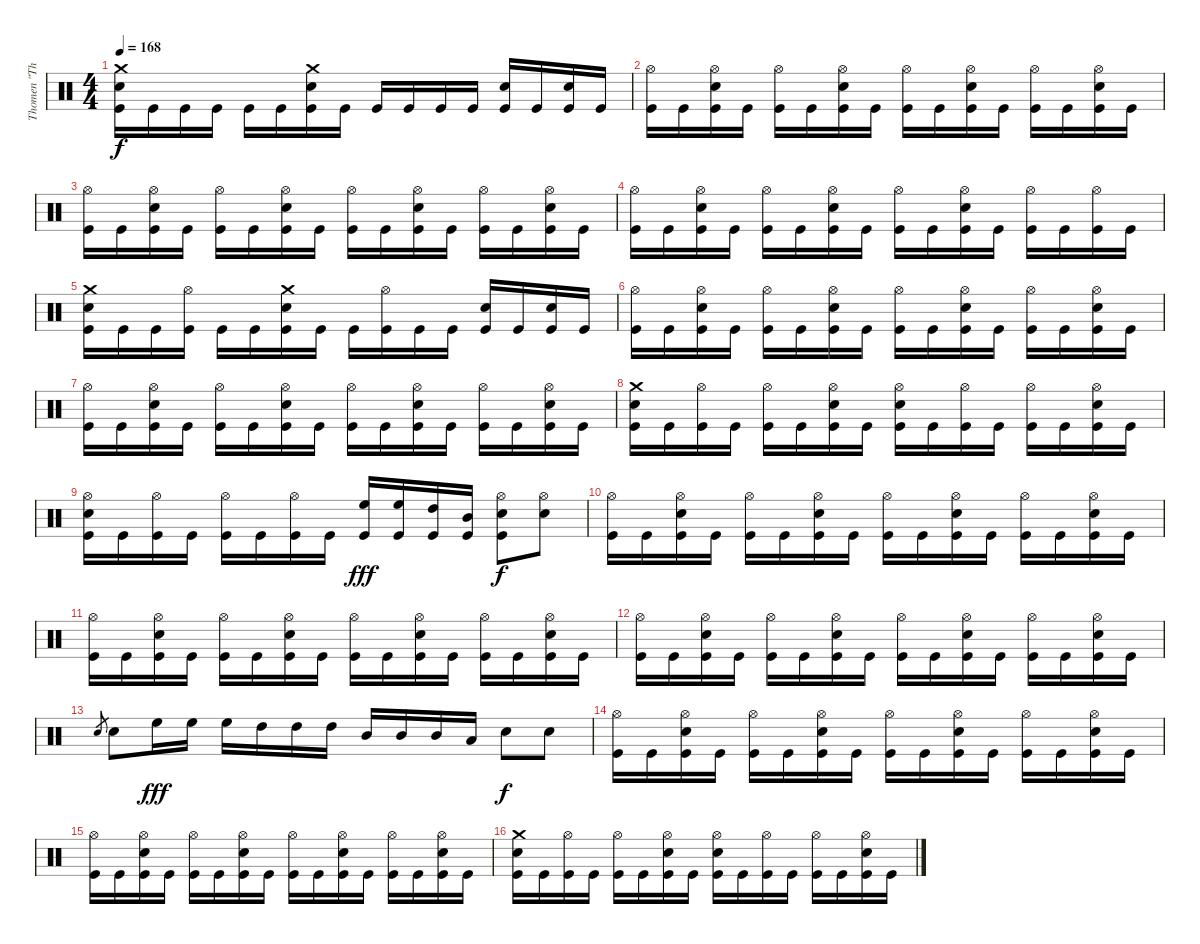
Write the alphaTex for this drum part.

\track ("Thomen \"The Omen\" Stauch" "Thomen \"Th") {instrument percussion}
\staff {score}
\articulation defaults
\ts (4 4)
\tempo 168
\clef neutral
\ks c
("Crash medium (hit)" "Snare (hit) 2" "Kick (hit)").16{dy f} "Kick (hit)".16 "Kick (hit)".16 "Kick (hit)".16 "Kick (hit)".16 "Kick (hit)".16 ("Crash medium (hit)" "Snare (hit) 2" "Kick (hit)").16 "Kick (hit)".16 "Kick (hit)".16 "Kick (hit)".16 "Kick (hit)".16 "Kick (hit)".16 ("Snare (hit) 2" "Kick (hit)").16 "Kick (hit)".16 ("Snare (hit) 2" "Kick (hit)").16 "Kick (hit)".16 |
("Hi-Hat (open)" "Kick (hit)").16 "Kick (hit)".16 ("Hi-Hat (open)" "Snare (hit) 2" "Kick (hit)").16 "Kick (hit)".16 ("Hi-Hat (open)" "Kick (hit)").16 "Kick (hit)".16 ("Hi-Hat (open)" "Snare (hit) 2" "Kick (hit)").16 "Kick (hit)".16 ("Hi-Hat (open)" "Kick (hit)").16 "Kick (hit)".16 ("Hi-Hat (open)" "Snare (hit) 2" "Kick (hit)").16 "Kick (hit)".16 ("Hi-Hat (open)" "Kick (hit)").16 "Kick (hit)".16 ("Hi-Hat (open)" "Snare (hit) 2" "Kick (hit)").16 "Kick (hit)".16 |
("Hi-Hat (open)" "Kick (hit)").16 "Kick (hit)".16 ("Hi-Hat (open)" "Snare (hit) 2" "Kick (hit)").16 "Kick (hit)".16 ("Hi-Hat (open)" "Kick (hit)").16 "Kick (hit)".16 ("Hi-Hat (open)" "Snare (hit) 2" "Kick (hit)").16 "Kick (hit)".16 ("Hi-Hat (open)" "Kick (hit)").16 "Kick (hit)".16 ("Hi-Hat (open)" "Snare (hit) 2" "Kick (hit)").16 "Kick (hit)".16 ("Hi-Hat (open)" "Kick (hit)").16 "Kick (hit)".16 ("Hi-Hat (open)" "Snare (hit) 2" "Kick (hit)").16 "Kick (hit)".16 |
("Hi-Hat (open)" "Kick (hit)").16 "Kick (hit)".16 ("Hi-Hat (open)" "Snare (hit) 2" "Kick (hit)").16 "Kick (hit)".16 ("Hi-Hat (open)" "Kick (hit)").16 "Kick (hit)".16 ("Hi-Hat (open)" "Snare (hit) 2" "Kick (hit)").16 "Kick (hit)".16 ("Hi-Hat (open)" "Kick (hit)").16 "Kick (hit)".16 ("Hi-Hat (open)" "Snare (hit) 2" "Kick (hit)").16 "Kick (hit)".16 ("Hi-Hat (open)" "Kick (hit)").16 "Kick (hit)".16 ("Hi-Hat (open)" "Kick (hit)").16 "Kick (hit)".16 |
("Crash medium (hit)" "Snare (hit) 2" "Kick (hit)").16 "Kick (hit)".16 "Kick (hit)".16 ("Hi-Hat (open)" "Kick (hit)").16 "Kick (hit)".16 "Kick (hit)".16 ("Crash medium (hit)" "Snare (hit) 2" "Kick (hit)").16 "Kick (hit)".16 "Kick (hit)".16 ("Hi-Hat (open)" "Kick (hit)").16 "Kick (hit)".16 "Kick (hit)".16 ("Snare (hit) 2" "Kick (hit)").16 "Kick (hit)".16 ("Snare (hit) 2" "Kick (hit)").16 "Kick (hit)".16 |
("Hi-Hat (open)" "Kick (hit)").16 "Kick (hit)".16 ("Hi-Hat (open)" "Snare (hit) 2" "Kick (hit)").16 "Kick (hit)".16 ("Hi-Hat (open)" "Kick (hit)").16 "Kick (hit)".16 ("Hi-Hat (open)" "Snare (hit) 2" "Kick (hit)").16 "Kick (hit)".16 ("Hi-Hat (open)" "Kick (hit)").16 "Kick (hit)".16 ("Hi-Hat (open)" "Snare (hit) 2" "Kick (hit)").16 "Kick (hit)".16 ("Hi-Hat (open)" "Kick (hit)").16 "Kick (hit)".16 ("Hi-Hat (open)" "Snare (hit) 2" "Kick (hit)").16 "Kick (hit)".16 |
("Hi-Hat (open)" "Kick (hit)").16 "Kick (hit)".16 ("Hi-Hat (open)" "Snare (hit) 2" "Kick (hit)").16 "Kick (hit)".16 ("Hi-Hat (open)" "Kick (hit)").16 "Kick (hit)".16 ("Hi-Hat (open)" "Snare (hit) 2" "Kick (hit)").16 "Kick (hit)".16 ("Hi-Hat (open)" "Kick (hit)").16 "Kick (hit)".16 ("Hi-Hat (open)" "Snare (hit) 2" "Kick (hit)").16 "Kick (hit)".16 ("Hi-Hat (open)" "Kick (hit)").16 "Kick (hit)".16 ("Hi-Hat (open)" "Snare (hit) 2" "Kick (hit)").16 "Kick (hit)".16 |
("Crash medium (hit)" "Snare (hit) 2" "Kick (hit)").16 "Kick (hit)".16 ("Hi-Hat (open)" "Kick (hit)").16 "Kick (hit)".16 ("Hi-Hat (open)" "Kick (hit)").16 "Kick (hit)".16 ("Hi-Hat (open)" "Snare (hit) 2" "Kick (hit)").16 "Kick (hit)".16 ("Hi-Hat (open)" "Snare (hit) 2" "Kick (hit)").16 "Kick (hit)".16 ("Hi-Hat (open)" "Kick (hit)").16 "Kick (hit)".16 ("Hi-Hat (open)" "Kick (hit)").16 "Kick (hit)".16 ("Hi-Hat (open)" "Snare (hit) 2" "Kick (hit)").16 "Kick (hit)".16 |
("Hi-Hat (open)" "Snare (hit) 2" "Kick (hit)").16 "Kick (hit)".16 ("Hi-Hat (open)" "Kick (hit)").16 "Kick (hit)".16 ("Hi-Hat (open)" "Kick (hit)").16 "Kick (hit)".16 ("Hi-Hat (open)" "Kick (hit)").16 "Kick (hit)".16 ("High Floor Tom (hit)" "Kick (hit)").16{dy fff} ("High Floor Tom (hit)" "Kick (hit)").16 ("High Tom (hit)" "Kick (hit)").16 ("Mid Tom (hit)" "Kick (hit)").16 ("Hi-Hat (open)" "Snare (hit) 2" "Kick (hit)").8{dy f} ("Hi-Hat (open)" "Snare (hit) 2").8 |
("Hi-Hat (open)" "Kick (hit)").16 "Kick (hit)".16 ("Hi-Hat (open)" "Snare (hit) 2" "Kick (hit)").16 "Kick (hit)".16 ("Hi-Hat (open)" "Kick (hit)").16 "Kick (hit)".16 ("Hi-Hat (open)" "Snare (hit) 2" "Kick (hit)").16 "Kick (hit)".16 ("Hi-Hat (open)" "Kick (hit)").16 "Kick (hit)".16 ("Hi-Hat (open)" "Snare (hit) 2" "Kick (hit)").16 "Kick (hit)".16 ("Hi-Hat (open)" "Kick (hit)").16 "Kick (hit)".16 ("Hi-Hat (open)" "Snare (hit) 2" "Kick (hit)").16 "Kick (hit)".16 |
("Hi-Hat (open)" "Kick (hit)").16 "Kick (hit)".16 ("Hi-Hat (open)" "Snare (hit) 2" "Kick (hit)").16 "Kick (hit)".16 ("Hi-Hat (open)" "Kick (hit)").16 "Kick (hit)".16 ("Hi-Hat (open)" "Snare (hit) 2" "Kick (hit)").16 "Kick (hit)".16 ("Hi-Hat (open)" "Kick (hit)").16 "Kick (hit)".16 ("Hi-Hat (open)" "Snare (hit) 2" "Kick (hit)").16 "Kick (hit)".16 ("Hi-Hat (open)" "Kick (hit)").16 "Kick (hit)".16 ("Hi-Hat (open)" "Snare (hit) 2" "Kick (hit)").16 "Kick (hit)".16 |
("Hi-Hat (open)" "Kick (hit)").16 "Kick (hit)".16 ("Hi-Hat (open)" "Snare (hit) 2" "Kick (hit)").16 "Kick (hit)".16 ("Hi-Hat (open)" "Kick (hit)").16 "Kick (hit)".16 ("Hi-Hat (open)" "Snare (hit) 2" "Kick (hit)").16 "Kick (hit)".16 ("Hi-Hat (open)" "Kick (hit)").16 "Kick (hit)".16 ("Hi-Hat (open)" "Snare (hit) 2" "Kick (hit)").16 "Kick (hit)".16 ("Hi-Hat (open)" "Kick (hit)").16 "Kick (hit)".16 ("Hi-Hat (open)" "Snare (hit) 2" "Kick (hit)").16 "Kick (hit)".16 |
"Snare (hit) 2".8{gr} "Snare (hit) 2".8 "High Floor Tom (hit)".16{dy fff} "High Floor Tom (hit)".16 "High Floor Tom (hit)".16 "High Tom (hit)".16 "High Tom (hit)".16 "High Tom (hit)".16 "Mid Tom (hit)".16 "Mid Tom (hit)".16 "Mid Tom (hit)".16 "Low Tom (hit)".16 "Snare (hit) 2".8{dy f} "Snare (hit) 2".8 |
("Hi-Hat (open)" "Kick (hit)").16 "Kick (hit)".16 ("Hi-Hat (open)" "Snare (hit) 2" "Kick (hit)").16 "Kick (hit)".16 ("Hi-Hat (open)" "Kick (hit)").16 "Kick (hit)".16 ("Hi-Hat (open)" "Snare (hit) 2" "Kick (hit)").16 "Kick (hit)".16 ("Hi-Hat (open)" "Kick (hit)").16 "Kick (hit)".16 ("Hi-Hat (open)" "Snare (hit) 2" "Kick (hit)").16 "Kick (hit)".16 ("Hi-Hat (open)" "Kick (hit)").16 "Kick (hit)".16 ("Hi-Hat (open)" "Snare (hit) 2" "Kick (hit)").16 "Kick (hit)".16 |
("Hi-Hat (open)" "Kick (hit)").16 "Kick (hit)".16 ("Hi-Hat (open)" "Snare (hit) 2" "Kick (hit)").16 "Kick (hit)".16 ("Hi-Hat (open)" "Kick (hit)").16 "Kick (hit)".16 ("Hi-Hat (open)" "Snare (hit) 2" "Kick (hit)").16 "Kick (hit)".16 ("Hi-Hat (open)" "Kick (hit)").16 "Kick (hit)".16 ("Hi-Hat (open)" "Snare (hit) 2" "Kick (hit)").16 "Kick (hit)".16 ("Hi-Hat (open)" "Kick (hit)").16 "Kick (hit)".16 ("Hi-Hat (open)" "Snare (hit) 2" "Kick (hit)").16 "Kick (hit)".16 |
("Crash medium (hit)" "Snare (hit) 2" "Kick (hit)").16 "Kick (hit)".16 ("Hi-Hat (open)" "Kick (hit)").16 "Kick (hit)".16 ("Hi-Hat (open)" "Kick (hit)").16 "Kick (hit)".16 ("Hi-Hat (open)" "Snare (hit) 2" "Kick (hit)").16 "Kick (hit)".16 ("Hi-Hat (open)" "Snare (hit) 2" "Kick (hit)").16 "Kick (hit)".16 ("Hi-Hat (open)" "Kick (hit)").16 "Kick (hit)".16 ("Hi-Hat (open)" "Kick (hit)").16 "Kick (hit)".16 ("Hi-Hat (open)" "Snare (hit) 2" "Kick (hit)").16 "Kick (hit)".16
